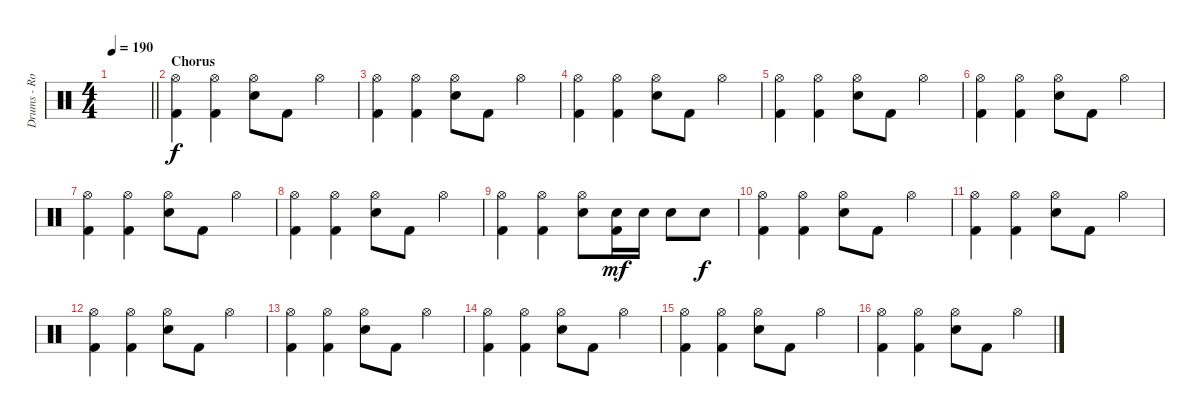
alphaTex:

\track ("Drums - Rob Bourdon" "Drums - Ro") {instrument percussion}
\staff {score}
\articulation defaults
\ts (4 4)
\tempo 190
\clef neutral
\barLineRight lightlight
\ks c
|
\section ("" "Chorus")
("Hi-Hat (open)" "Kick (hit) 2").4{dy f} ("Hi-Hat (open)" "Kick (hit) 2").4 ("Hi-Hat (open)" "Snare (hit) 2").8 "Kick (hit) 2".8 "Hi-Hat (open)".4 |
("Hi-Hat (open)" "Kick (hit) 2").4 ("Hi-Hat (open)" "Kick (hit) 2").4 ("Hi-Hat (open)" "Snare (hit) 2").8 "Kick (hit) 2".8 "Hi-Hat (open)".4 |
("Hi-Hat (open)" "Kick (hit) 2").4 ("Hi-Hat (open)" "Kick (hit) 2").4 ("Hi-Hat (open)" "Snare (hit) 2").8 "Kick (hit) 2".8 "Hi-Hat (open)".4 |
("Hi-Hat (open)" "Kick (hit) 2").4 ("Hi-Hat (open)" "Kick (hit) 2").4 ("Hi-Hat (open)" "Snare (hit) 2").8 "Kick (hit) 2".8 "Hi-Hat (open)".4 |
("Hi-Hat (open)" "Kick (hit) 2").4 ("Hi-Hat (open)" "Kick (hit) 2").4 ("Hi-Hat (open)" "Snare (hit) 2").8 "Kick (hit) 2".8 "Hi-Hat (open)".4 |
("Hi-Hat (open)" "Kick (hit) 2").4 ("Hi-Hat (open)" "Kick (hit) 2").4 ("Hi-Hat (open)" "Snare (hit) 2").8 "Kick (hit) 2".8 "Hi-Hat (open)".4 |
("Hi-Hat (open)" "Kick (hit) 2").4 ("Hi-Hat (open)" "Kick (hit) 2").4 ("Hi-Hat (open)" "Snare (hit) 2").8 "Kick (hit) 2".8 "Hi-Hat (open)".4 |
("Hi-Hat (open)" "Kick (hit) 2").4 ("Hi-Hat (open)" "Kick (hit) 2").4 ("Hi-Hat (open)" "Snare (hit) 2").8 ("Snare (hit) 2" "Kick (hit) 2").16{dy mf} "Snare (hit) 2".16 "Snare (hit) 2".8 "Snare (hit) 2".8{dy f} |
("Hi-Hat (open)" "Kick (hit) 2").4 ("Hi-Hat (open)" "Kick (hit) 2").4 ("Hi-Hat (open)" "Snare (hit) 2").8 "Kick (hit) 2".8 "Hi-Hat (open)".4 |
("Hi-Hat (open)" "Kick (hit) 2").4 ("Hi-Hat (open)" "Kick (hit) 2").4 ("Hi-Hat (open)" "Snare (hit) 2").8 "Kick (hit) 2".8 "Hi-Hat (open)".4 |
("Hi-Hat (open)" "Kick (hit) 2").4 ("Hi-Hat (open)" "Kick (hit) 2").4 ("Hi-Hat (open)" "Snare (hit) 2").8 "Kick (hit) 2".8 "Hi-Hat (open)".4 |
("Hi-Hat (open)" "Kick (hit) 2").4 ("Hi-Hat (open)" "Kick (hit) 2").4 ("Hi-Hat (open)" "Snare (hit) 2").8 "Kick (hit) 2".8 "Hi-Hat (open)".4 |
("Hi-Hat (open)" "Kick (hit) 2").4 ("Hi-Hat (open)" "Kick (hit) 2").4 ("Hi-Hat (open)" "Snare (hit) 2").8 "Kick (hit) 2".8 "Hi-Hat (open)".4 |
("Hi-Hat (open)" "Kick (hit) 2").4 ("Hi-Hat (open)" "Kick (hit) 2").4 ("Hi-Hat (open)" "Snare (hit) 2").8 "Kick (hit) 2".8 "Hi-Hat (open)".4 |
("Hi-Hat (open)" "Kick (hit) 2").4 ("Hi-Hat (open)" "Kick (hit) 2").4 ("Hi-Hat (open)" "Snare (hit) 2").8 "Kick (hit) 2".8 "Hi-Hat (open)".4
